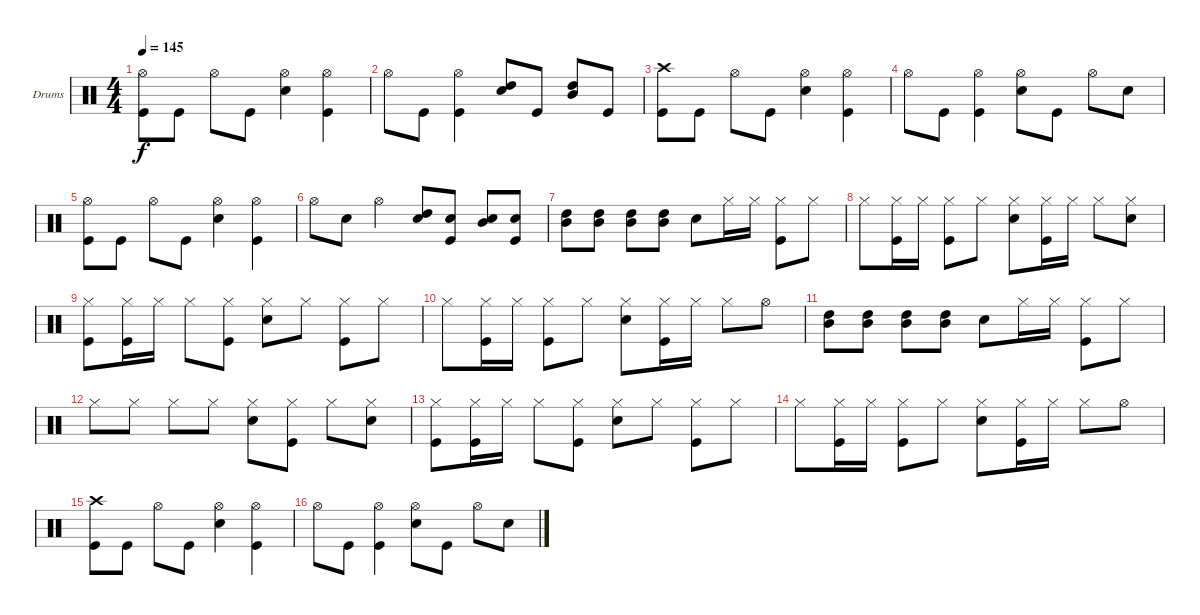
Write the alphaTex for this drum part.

\bracketExtendMode groupsimilarinstruments
\firstSystemTrackNameOrientation horizontal
\otherSystemsTrackNameOrientation horizontal
\track ("Drumkit" "Drums") {instrument percussion}
\staff {score}
\articulation defaults
\ts (4 4)
\tempo 145
\clef neutral
\ks c
("Hi-Hat (open)" "Kick (hit)").8{dy f} "Kick (hit)".8 "Hi-Hat (open)".8 "Kick (hit)".8 ("Hi-Hat (open)" "Snare (hit) 2").4 ("Hi-Hat (open)" "Kick (hit)").4 |
"Hi-Hat (open)".8 "Kick (hit)".8 ("Hi-Hat (open)" "Kick (hit)").4 ("Snare (hit) 2" "High Tom (hit)").8 "Kick (hit)".8 ("High Tom (hit)" "Mid Tom (hit)").8 "Kick (hit)".8 |
("Crash high (hit)" "Kick (hit)").8 "Kick (hit)".8 "Hi-Hat (open)".8 "Kick (hit)".8 ("Hi-Hat (open)" "Snare (hit) 2").4 ("Hi-Hat (open)" "Kick (hit)").4 |
"Hi-Hat (open)".8 "Kick (hit)".8 ("Hi-Hat (open)" "Kick (hit)").4 ("Hi-Hat (open)" "Snare (hit) 2").8 "Kick (hit)".8 "Hi-Hat (open)".8 "Snare (hit) 2".8 |
("Hi-Hat (open)" "Kick (hit)").8 "Kick (hit)".8 "Hi-Hat (open)".8 "Kick (hit)".8 ("Hi-Hat (open)" "Snare (hit) 2").4 ("Hi-Hat (open)" "Kick (hit)").4 |
"Hi-Hat (open)".8 "Snare (hit) 2".8 "Hi-Hat (open)".4 ("High Tom (hit)" "Snare (hit) 2").8 ("Kick (hit)" "Snare (hit) 2").8 ("Snare (hit) 2" "Mid Tom (hit)").8 ("Kick (hit)" "Snare (hit) 2").8 |
("High Tom (hit)" "Mid Tom (hit)").8 ("High Tom (hit)" "Mid Tom (hit)").8 ("High Tom (hit)" "Mid Tom (hit)").8 ("High Tom (hit)" "Mid Tom (hit)").8 "Snare (hit) 2".8 "Hi-Hat (closed)".16 "Hi-Hat (closed)".16 ("Hi-Hat (closed)" "Kick (hit)").8 "Hi-Hat (closed)".8 |
"Hi-Hat (closed)".8 ("Hi-Hat (closed)" "Kick (hit)").16 "Hi-Hat (closed)".16 ("Hi-Hat (closed)" "Kick (hit)").8 "Hi-Hat (closed)".8 ("Hi-Hat (closed)" "Snare (hit) 2").8 ("Kick (hit)" "Hi-Hat (closed)").16 "Hi-Hat (closed)".16 "Hi-Hat (closed)".8 ("Hi-Hat (closed)" "Snare (hit) 2").8 |
("Kick (hit)" "Hi-Hat (closed)").8 ("Kick (hit)" "Hi-Hat (closed)").16 "Hi-Hat (closed)".16 "Hi-Hat (closed)".8 ("Hi-Hat (closed)" "Kick (hit)").8 ("Hi-Hat (closed)" "Snare (hit) 2").8 "Hi-Hat (closed)".8 ("Hi-Hat (closed)" "Kick (hit)").8 "Hi-Hat (closed)".8 |
"Hi-Hat (closed)".8 ("Hi-Hat (closed)" "Kick (hit)").16 "Hi-Hat (closed)".16 ("Hi-Hat (closed)" "Kick (hit)").8 "Hi-Hat (closed)".8 ("Hi-Hat (closed)" "Snare (hit) 2").8 ("Kick (hit)" "Hi-Hat (closed)").16 "Hi-Hat (closed)".16 "Hi-Hat (closed)".8 "Hi-Hat (open)".8 |
("High Tom (hit)" "Mid Tom (hit)").8 ("High Tom (hit)" "Mid Tom (hit)").8 ("High Tom (hit)" "Mid Tom (hit)").8 ("High Tom (hit)" "Mid Tom (hit)").8 "Snare (hit) 2".8 "Hi-Hat (closed)".16 "Hi-Hat (closed)".16 ("Hi-Hat (closed)" "Kick (hit)").8 "Hi-Hat (closed)".8 |
"Hi-Hat (closed)".8 "Hi-Hat (closed)".8 "Hi-Hat (closed)".8 "Hi-Hat (closed)".8 ("Hi-Hat (closed)" "Snare (hit) 2").8 ("Hi-Hat (closed)" "Kick (hit)").8 "Hi-Hat (closed)".8 ("Hi-Hat (closed)" "Snare (hit) 2").8 |
("Kick (hit)" "Hi-Hat (closed)").8 ("Kick (hit)" "Hi-Hat (closed)").16 "Hi-Hat (closed)".16 "Hi-Hat (closed)".8 ("Hi-Hat (closed)" "Kick (hit)").8 ("Hi-Hat (closed)" "Snare (hit) 2").8 "Hi-Hat (closed)".8 ("Hi-Hat (closed)" "Kick (hit)").8 "Hi-Hat (closed)".8 |
"Hi-Hat (closed)".8 ("Hi-Hat (closed)" "Kick (hit)").16 "Hi-Hat (closed)".16 ("Hi-Hat (closed)" "Kick (hit)").8 "Hi-Hat (closed)".8 ("Hi-Hat (closed)" "Snare (hit) 2").8 ("Kick (hit)" "Hi-Hat (closed)").16 "Hi-Hat (closed)".16 "Hi-Hat (closed)".8 "Hi-Hat (open)".8 |
("Crash high (hit)" "Kick (hit)").8 "Kick (hit)".8 "Hi-Hat (open)".8 "Kick (hit)".8 ("Hi-Hat (open)" "Snare (hit) 2").4 ("Hi-Hat (open)" "Kick (hit)").4 |
"Hi-Hat (open)".8 "Kick (hit)".8 ("Hi-Hat (open)" "Kick (hit)").4 ("Hi-Hat (open)" "Snare (hit) 2").8 "Kick (hit)".8 "Hi-Hat (open)".8 "Snare (hit) 2".8
